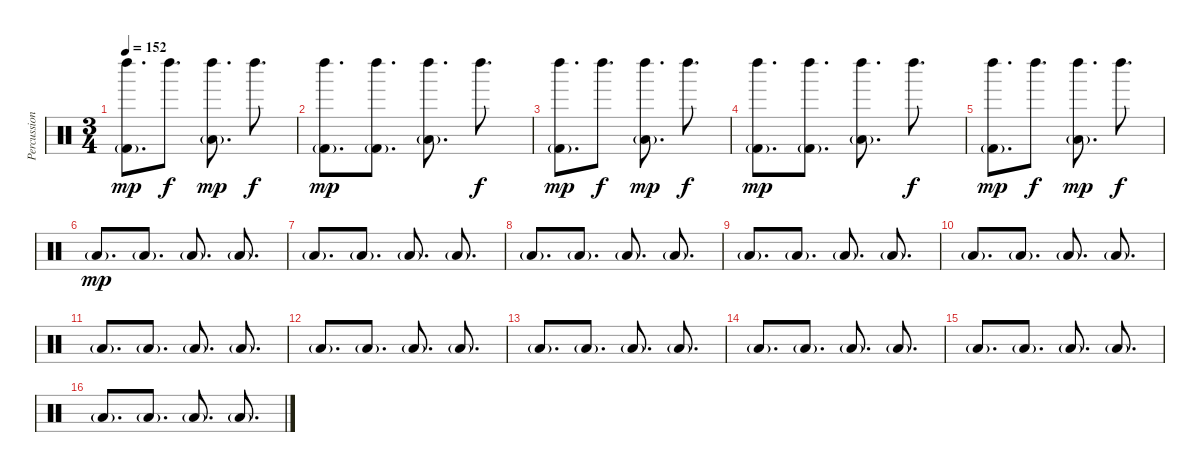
\track ("Percussion" "Percussion") {instrument percussion}
\staff {score}
\articulation defaults
\ts (3 4)
\tempo 152
\clef neutral
\ks c
("Left Maraca (hit)" "Kick (hit) 2"{g}).8{d dy mp} "Left Maraca (hit)".8{d dy f} ("Left Maraca (hit)" "Low Tom (hit)"{g}).8{d dy mp} "Left Maraca (hit)".8{d dy f} |
("Left Maraca (hit)" "Kick (hit) 2"{g}).8{d dy mp} ("Left Maraca (hit)" "Kick (hit) 2"{g}).8{d} ("Left Maraca (hit)" "Low Tom (hit)"{g}).8{d} "Left Maraca (hit)".8{d dy f} |
("Left Maraca (hit)" "Kick (hit) 2"{g}).8{d dy mp} "Left Maraca (hit)".8{d dy f} ("Left Maraca (hit)" "Low Tom (hit)"{g}).8{d dy mp} "Left Maraca (hit)".8{d dy f} |
("Left Maraca (hit)" "Kick (hit) 2"{g}).8{d dy mp} ("Left Maraca (hit)" "Kick (hit) 2"{g}).8{d} ("Left Maraca (hit)" "Low Tom (hit)"{g}).8{d} "Left Maraca (hit)".8{d dy f} |
("Left Maraca (hit)" "Kick (hit) 2"{g}).8{d dy mp} "Left Maraca (hit)".8{d dy f} ("Left Maraca (hit)" "Low Tom (hit)"{g}).8{d dy mp} "Left Maraca (hit)".8{d dy f} |
"Low Floor Tom (hit)"{g}.8{d dy mp} "Low Floor Tom (hit)"{g}.8{d} "Low Floor Tom (hit)"{g}.8{d} "Low Floor Tom (hit)"{g}.8{d} |
"Low Floor Tom (hit)"{g}.8{d} "Low Floor Tom (hit)"{g}.8{d} "Low Floor Tom (hit)"{g}.8{d} "Low Floor Tom (hit)"{g}.8{d} |
"Low Floor Tom (hit)"{g}.8{d} "Low Floor Tom (hit)"{g}.8{d} "Low Floor Tom (hit)"{g}.8{d} "Low Floor Tom (hit)"{g}.8{d} |
"Low Floor Tom (hit)"{g}.8{d} "Low Floor Tom (hit)"{g}.8{d} "Low Floor Tom (hit)"{g}.8{d} "Low Floor Tom (hit)"{g}.8{d} |
"Low Floor Tom (hit)"{g}.8{d} "Low Floor Tom (hit)"{g}.8{d} "Low Floor Tom (hit)"{g}.8{d} "Low Floor Tom (hit)"{g}.8{d} |
"Low Floor Tom (hit)"{g}.8{d} "Low Floor Tom (hit)"{g}.8{d} "Low Floor Tom (hit)"{g}.8{d} "Low Floor Tom (hit)"{g}.8{d} |
"Low Floor Tom (hit)"{g}.8{d} "Low Floor Tom (hit)"{g}.8{d} "Low Floor Tom (hit)"{g}.8{d} "Low Floor Tom (hit)"{g}.8{d} |
"Low Floor Tom (hit)"{g}.8{d} "Low Floor Tom (hit)"{g}.8{d} "Low Floor Tom (hit)"{g}.8{d} "Low Floor Tom (hit)"{g}.8{d} |
"Low Floor Tom (hit)"{g}.8{d} "Low Floor Tom (hit)"{g}.8{d} "Low Floor Tom (hit)"{g}.8{d} "Low Floor Tom (hit)"{g}.8{d} |
"Low Floor Tom (hit)"{g}.8{d} "Low Floor Tom (hit)"{g}.8{d} "Low Floor Tom (hit)"{g}.8{d} "Low Floor Tom (hit)"{g}.8{d} |
"Low Floor Tom (hit)"{g}.8{d} "Low Floor Tom (hit)"{g}.8{d} "Low Floor Tom (hit)"{g}.8{d} "Low Floor Tom (hit)"{g}.8{d}
